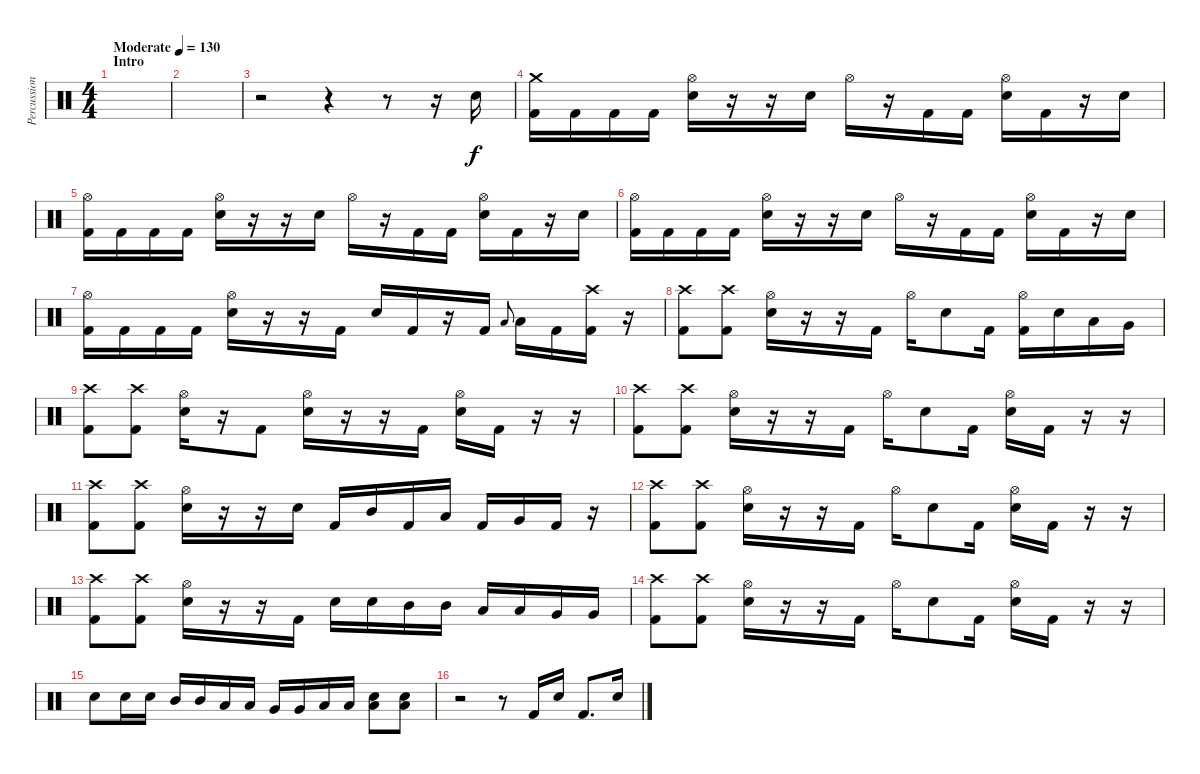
\track ("Percussion" "Percussion") {instrument percussion}
\staff {score}
\articulation defaults
\ts (4 4)
\section ("" "Intro")
\tempo (130 "Moderate")
\clef neutral
\ks c
|
|
r.2 r.4 r.8 r.16 "Snare (hit) 2".16 |
("Kick (hit) 2" "Crash medium (hit)").16 "Kick (hit) 2".16 "Kick (hit) 2".16 "Kick (hit) 2".16 ("Snare (hit) 2" "Hi-Hat (open)").16 r.16 r.16 "Snare (hit) 2".16 "Hi-Hat (open)".16 r.16 "Kick (hit) 2".16 "Kick (hit) 2".16 ("Snare (hit) 2" "Hi-Hat (open)").16 "Kick (hit) 2".16 r.16 "Snare (hit) 2".16 |
("Kick (hit) 2" "Hi-Hat (open)").16 "Kick (hit) 2".16 "Kick (hit) 2".16 "Kick (hit) 2".16 ("Snare (hit) 2" "Hi-Hat (open)").16 r.16 r.16 "Snare (hit) 2".16 "Hi-Hat (open)".16 r.16 "Kick (hit) 2".16 "Kick (hit) 2".16 ("Snare (hit) 2" "Hi-Hat (open)").16 "Kick (hit) 2".16 r.16 "Snare (hit) 2".16 |
("Kick (hit) 2" "Hi-Hat (open)").16 "Kick (hit) 2".16 "Kick (hit) 2".16 "Kick (hit) 2".16 ("Snare (hit) 2" "Hi-Hat (open)").16 r.16 r.16 "Snare (hit) 2".16 "Hi-Hat (open)".16 r.16 "Kick (hit) 2".16 "Kick (hit) 2".16 ("Snare (hit) 2" "Hi-Hat (open)").16 "Kick (hit) 2".16 r.16 "Snare (hit) 2".16 |
("Kick (hit) 2" "Hi-Hat (open)").16 "Kick (hit) 2".16 "Kick (hit) 2".16 "Kick (hit) 2".16 ("Snare (hit) 2" "Hi-Hat (open)").16 r.16 r.16 "Kick (hit) 2".16 "Snare (hit) 2".16 "Kick (hit) 2".16 r.16 "Kick (hit) 2".16 "Low Tom (hit)"{sl}.8{gr onbeat} "Low Tom (hit)".16 "Kick (hit) 2".16 ("Kick (hit) 2" "Crash high (hit)").16 r.16 |
("Kick (hit) 2" "Crash high (hit)").8 ("Kick (hit) 2" "Crash high (hit)").8 ("Snare (hit) 2" "Hi-Hat (open)").16 r.16 r.16 "Kick (hit) 2".16 "Hi-Hat (open)".16 "Snare (hit) 2".8 "Kick (hit) 2".16 ("Kick (hit) 2" "Hi-Hat (open)").16 "Snare (hit) 2".16 "Low Tom (hit)".16 "Very Low Tom (hit)".16 |
("Kick (hit) 2" "Crash high (hit)").8 ("Kick (hit) 2" "Crash high (hit)").8 ("Snare (hit) 2" "Hi-Hat (open)").16 r.16 "Kick (hit) 2".8 ("Snare (hit) 2" "Hi-Hat (open)").16 r.16 r.16 "Kick (hit) 2".16 ("Snare (hit) 2" "Hi-Hat (open)").16 "Kick (hit) 2".16 r.16 r.16 |
("Kick (hit) 2" "Crash high (hit)").8 ("Kick (hit) 2" "Crash high (hit)").8 ("Snare (hit) 2" "Hi-Hat (open)").16 r.16 r.16 "Kick (hit) 2".16 "Hi-Hat (open)".16 "Snare (hit) 2".8 "Kick (hit) 2".16 ("Snare (hit) 2" "Hi-Hat (open)").16 "Kick (hit) 2".16 r.16 r.16 |
("Kick (hit) 2" "Crash high (hit)").8 ("Kick (hit) 2" "Crash high (hit)").8 ("Snare (hit) 2" "Hi-Hat (open)").16 r.16 r.16 "Snare (hit) 2".16 "Kick (hit) 2".16 "Mid Tom (hit)".16 "Kick (hit) 2".16 "Low Tom (hit)".16 "Kick (hit) 2".16 "Very Low Tom (hit)".16 "Kick (hit) 2".16 r.16 |
("Kick (hit) 2" "Crash high (hit)").8 ("Kick (hit) 2" "Crash high (hit)").8 ("Snare (hit) 2" "Hi-Hat (open)").16 r.16 r.16 "Kick (hit) 2".16 "Hi-Hat (open)".16 "Snare (hit) 2".8 "Kick (hit) 2".16 ("Snare (hit) 2" "Hi-Hat (open)").16 "Kick (hit) 2".16 r.16 r.16 |
("Kick (hit) 2" "Crash high (hit)").8 ("Kick (hit) 2" "Crash high (hit)").8 ("Snare (hit) 2" "Hi-Hat (open)").16 r.16 r.16 "Kick (hit) 2".16 "Snare (hit) 2".16 "Snare (hit) 2".16 "Mid Tom (hit)".16 "Mid Tom (hit)".16 "Low Tom (hit)".16 "Low Tom (hit)".16 "Very Low Tom (hit)".16 "Very Low Tom (hit)".16 |
("Kick (hit) 2" "Crash high (hit)").8 ("Kick (hit) 2" "Crash high (hit)").8 ("Snare (hit) 2" "Hi-Hat (open)").16 r.16 r.16 "Kick (hit) 2".16 "Hi-Hat (open)".16 "Snare (hit) 2".8 "Kick (hit) 2".16 ("Snare (hit) 2" "Hi-Hat (open)").16 "Kick (hit) 2".16 r.16 r.16 |
"Snare (hit) 2".8 "Snare (hit) 2".16 "Snare (hit) 2".16 "Mid Tom (hit)".16 "Mid Tom (hit)".16 "Low Tom (hit)".16 "Low Tom (hit)".16 "Very Low Tom (hit)".16 "Very Low Tom (hit)".16 "Low Floor Tom (hit)".16 "Low Floor Tom (hit)".16 ("Snare (hit) 2" "Low Floor Tom (hit)").8 ("Snare (hit) 2" "Low Floor Tom (hit)").8 |
r.2 r.8 "Kick (hit) 2".16 "Snare (hit) 2".16 "Kick (hit) 2".8{d} "Snare (hit) 2".16
